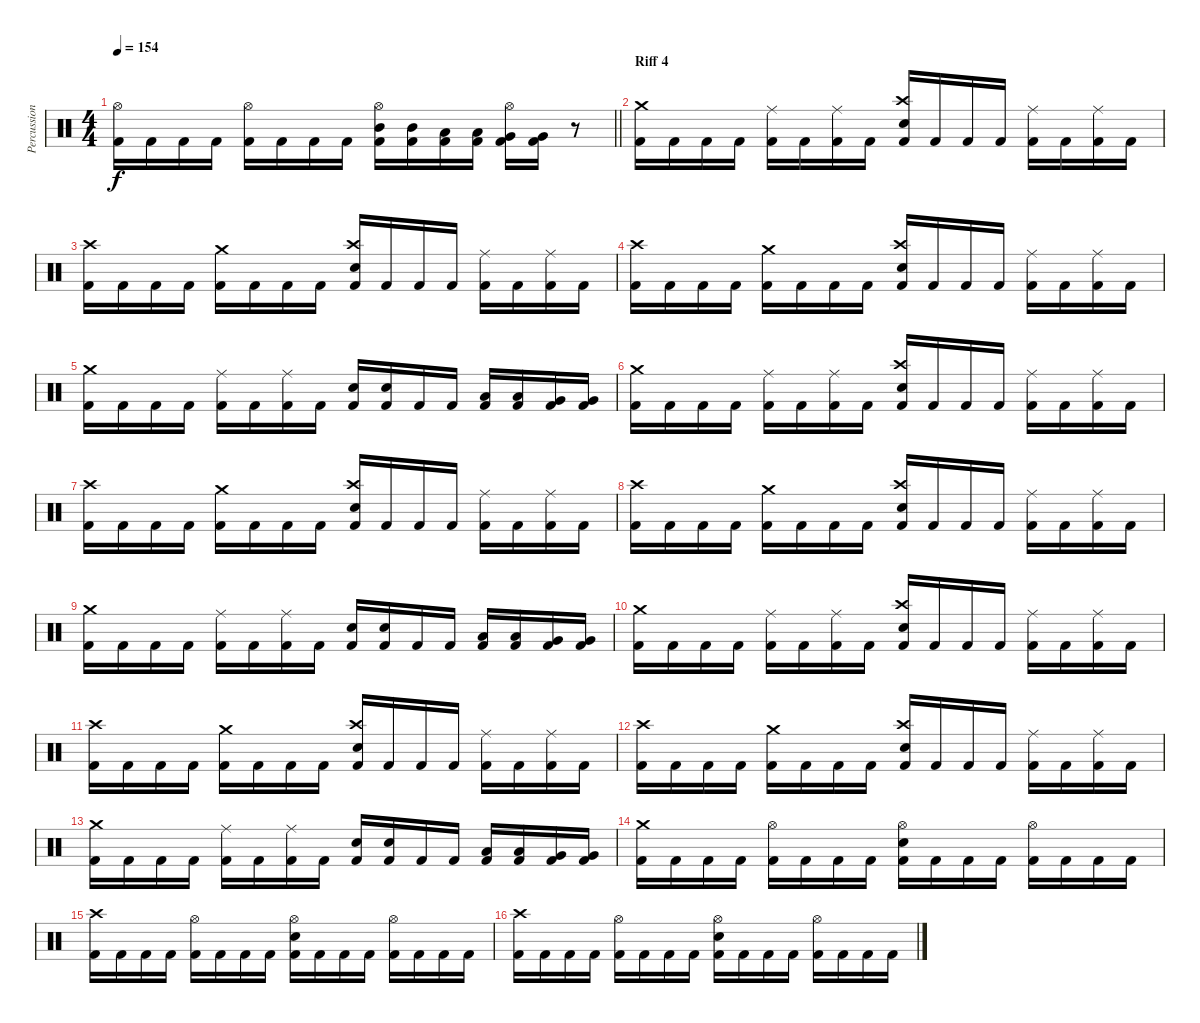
\track ("Percussion" "Percussion") {instrument percussion}
\staff {score}
\articulation defaults
\ts (4 4)
\tempo 154
\clef neutral
\barLineRight lightlight
\ks c
("Hi-Hat (open)" "Kick (hit) 2").16{dy f} "Kick (hit) 2".16 "Kick (hit) 2".16 "Kick (hit) 2".16 ("Hi-Hat (open)" "Kick (hit) 2").16 "Kick (hit) 2".16 "Kick (hit) 2".16 "Kick (hit) 2".16 ("Hi-Hat (open)" "Mid Tom (hit)" "Kick (hit) 2").16 ("Mid Tom (hit)" "Kick (hit) 2").16 ("Low Tom (hit)" "Kick (hit) 2").16 ("Low Tom (hit)" "Kick (hit) 2").16 ("Hi-Hat (open)" "Very Low Tom (hit)" "Kick (hit) 2").16 ("Very Low Tom (hit)" "Kick (hit) 2").16 r.8 |
\section ("" "Riff 4")
("Crash medium (hit)" "Kick (hit) 2").16 "Kick (hit) 2".16 "Kick (hit) 2".16 "Kick (hit) 2".16 ("Ride (middle)" "Kick (hit) 2").16 "Kick (hit) 2".16 ("Ride (middle)" "Kick (hit) 2").16 "Kick (hit) 2".16 ("Crash high (hit)" "Electric Snare (hit)" "Kick (hit) 2").16 "Kick (hit) 2".16 "Kick (hit) 2".16 "Kick (hit) 2".16 ("Ride (middle)" "Kick (hit) 2").16 "Kick (hit) 2".16 ("Ride (middle)" "Kick (hit) 2").16 "Kick (hit) 2".16 |
("Crash high (hit)" "Kick (hit) 2").16 "Kick (hit) 2".16 "Kick (hit) 2".16 "Kick (hit) 2".16 ("Crash medium (hit)" "Kick (hit) 2").16 "Kick (hit) 2".16 "Kick (hit) 2".16 "Kick (hit) 2".16 ("Crash high (hit)" "Electric Snare (hit)" "Kick (hit) 2").16 "Kick (hit) 2".16 "Kick (hit) 2".16 "Kick (hit) 2".16 ("Ride (middle)" "Kick (hit) 2").16 "Kick (hit) 2".16 ("Ride (middle)" "Kick (hit) 2").16 "Kick (hit) 2".16 |
("Crash high (hit)" "Kick (hit) 2").16 "Kick (hit) 2".16 "Kick (hit) 2".16 "Kick (hit) 2".16 ("Crash medium (hit)" "Kick (hit) 2").16 "Kick (hit) 2".16 "Kick (hit) 2".16 "Kick (hit) 2".16 ("Crash high (hit)" "Electric Snare (hit)" "Kick (hit) 2").16 "Kick (hit) 2".16 "Kick (hit) 2".16 "Kick (hit) 2".16 ("Ride (middle)" "Kick (hit) 2").16 "Kick (hit) 2".16 ("Ride (middle)" "Kick (hit) 2").16 "Kick (hit) 2".16 |
("Crash medium (hit)" "Kick (hit) 2").16 "Kick (hit) 2".16 "Kick (hit) 2".16 "Kick (hit) 2".16 ("Ride (middle)" "Kick (hit) 2").16 "Kick (hit) 2".16 ("Ride (middle)" "Kick (hit) 2").16 "Kick (hit) 2".16 ("Electric Snare (hit)" "Kick (hit) 2").16 ("Electric Snare (hit)" "Kick (hit) 2").16 "Kick (hit) 2".16 "Kick (hit) 2".16 ("Low Tom (hit)" "Kick (hit) 2").16 ("Low Tom (hit)" "Kick (hit) 2").16 ("Very Low Tom (hit)" "Kick (hit) 2").16 ("Very Low Tom (hit)" "Kick (hit) 2").16 |
("Crash medium (hit)" "Kick (hit) 2").16 "Kick (hit) 2".16 "Kick (hit) 2".16 "Kick (hit) 2".16 ("Ride (middle)" "Kick (hit) 2").16 "Kick (hit) 2".16 ("Ride (middle)" "Kick (hit) 2").16 "Kick (hit) 2".16 ("Crash high (hit)" "Electric Snare (hit)" "Kick (hit) 2").16 "Kick (hit) 2".16 "Kick (hit) 2".16 "Kick (hit) 2".16 ("Ride (middle)" "Kick (hit) 2").16 "Kick (hit) 2".16 ("Ride (middle)" "Kick (hit) 2").16 "Kick (hit) 2".16 |
("Crash high (hit)" "Kick (hit) 2").16 "Kick (hit) 2".16 "Kick (hit) 2".16 "Kick (hit) 2".16 ("Crash medium (hit)" "Kick (hit) 2").16 "Kick (hit) 2".16 "Kick (hit) 2".16 "Kick (hit) 2".16 ("Crash high (hit)" "Electric Snare (hit)" "Kick (hit) 2").16 "Kick (hit) 2".16 "Kick (hit) 2".16 "Kick (hit) 2".16 ("Ride (middle)" "Kick (hit) 2").16 "Kick (hit) 2".16 ("Ride (middle)" "Kick (hit) 2").16 "Kick (hit) 2".16 |
("Crash high (hit)" "Kick (hit) 2").16 "Kick (hit) 2".16 "Kick (hit) 2".16 "Kick (hit) 2".16 ("Crash medium (hit)" "Kick (hit) 2").16 "Kick (hit) 2".16 "Kick (hit) 2".16 "Kick (hit) 2".16 ("Crash high (hit)" "Electric Snare (hit)" "Kick (hit) 2").16 "Kick (hit) 2".16 "Kick (hit) 2".16 "Kick (hit) 2".16 ("Ride (middle)" "Kick (hit) 2").16 "Kick (hit) 2".16 ("Ride (middle)" "Kick (hit) 2").16 "Kick (hit) 2".16 |
("Crash medium (hit)" "Kick (hit) 2").16 "Kick (hit) 2".16 "Kick (hit) 2".16 "Kick (hit) 2".16 ("Ride (middle)" "Kick (hit) 2").16 "Kick (hit) 2".16 ("Ride (middle)" "Kick (hit) 2").16 "Kick (hit) 2".16 ("Electric Snare (hit)" "Kick (hit) 2").16 ("Electric Snare (hit)" "Kick (hit) 2").16 "Kick (hit) 2".16 "Kick (hit) 2".16 ("Low Tom (hit)" "Kick (hit) 2").16 ("Low Tom (hit)" "Kick (hit) 2").16 ("Very Low Tom (hit)" "Kick (hit) 2").16 ("Very Low Tom (hit)" "Kick (hit) 2").16 |
("Crash medium (hit)" "Kick (hit) 2").16 "Kick (hit) 2".16 "Kick (hit) 2".16 "Kick (hit) 2".16 ("Ride (middle)" "Kick (hit) 2").16 "Kick (hit) 2".16 ("Ride (middle)" "Kick (hit) 2").16 "Kick (hit) 2".16 ("Crash high (hit)" "Electric Snare (hit)" "Kick (hit) 2").16 "Kick (hit) 2".16 "Kick (hit) 2".16 "Kick (hit) 2".16 ("Ride (middle)" "Kick (hit) 2").16 "Kick (hit) 2".16 ("Ride (middle)" "Kick (hit) 2").16 "Kick (hit) 2".16 |
("Crash high (hit)" "Kick (hit) 2").16 "Kick (hit) 2".16 "Kick (hit) 2".16 "Kick (hit) 2".16 ("Crash medium (hit)" "Kick (hit) 2").16 "Kick (hit) 2".16 "Kick (hit) 2".16 "Kick (hit) 2".16 ("Crash high (hit)" "Electric Snare (hit)" "Kick (hit) 2").16 "Kick (hit) 2".16 "Kick (hit) 2".16 "Kick (hit) 2".16 ("Ride (middle)" "Kick (hit) 2").16 "Kick (hit) 2".16 ("Ride (middle)" "Kick (hit) 2").16 "Kick (hit) 2".16 |
("Crash high (hit)" "Kick (hit) 2").16 "Kick (hit) 2".16 "Kick (hit) 2".16 "Kick (hit) 2".16 ("Crash medium (hit)" "Kick (hit) 2").16 "Kick (hit) 2".16 "Kick (hit) 2".16 "Kick (hit) 2".16 ("Crash high (hit)" "Electric Snare (hit)" "Kick (hit) 2").16 "Kick (hit) 2".16 "Kick (hit) 2".16 "Kick (hit) 2".16 ("Ride (middle)" "Kick (hit) 2").16 "Kick (hit) 2".16 ("Ride (middle)" "Kick (hit) 2").16 "Kick (hit) 2".16 |
("Crash medium (hit)" "Kick (hit) 2").16 "Kick (hit) 2".16 "Kick (hit) 2".16 "Kick (hit) 2".16 ("Ride (middle)" "Kick (hit) 2").16 "Kick (hit) 2".16 ("Ride (middle)" "Kick (hit) 2").16 "Kick (hit) 2".16 ("Electric Snare (hit)" "Kick (hit) 2").16 ("Electric Snare (hit)" "Kick (hit) 2").16 "Kick (hit) 2".16 "Kick (hit) 2".16 ("Low Tom (hit)" "Kick (hit) 2").16 ("Low Tom (hit)" "Kick (hit) 2").16 ("Very Low Tom (hit)" "Kick (hit) 2").16 ("Very Low Tom (hit)" "Kick (hit) 2").16 |
("Crash medium (hit)" "Kick (hit) 2").16 "Kick (hit) 2".16 "Kick (hit) 2".16 "Kick (hit) 2".16 ("Hi-Hat (open)" "Kick (hit) 2").16 "Kick (hit) 2".16 "Kick (hit) 2".16 "Kick (hit) 2".16 ("Hi-Hat (open)" "Electric Snare (hit)" "Kick (hit) 2").16 "Kick (hit) 2".16 "Kick (hit) 2".16 "Kick (hit) 2".16 ("Hi-Hat (open)" "Kick (hit) 2").16 "Kick (hit) 2".16 "Kick (hit) 2".16 "Kick (hit) 2".16 |
("Crash high (hit)" "Kick (hit) 2").16 "Kick (hit) 2".16 "Kick (hit) 2".16 "Kick (hit) 2".16 ("Hi-Hat (open)" "Kick (hit) 2").16 "Kick (hit) 2".16 "Kick (hit) 2".16 "Kick (hit) 2".16 ("Hi-Hat (open)" "Electric Snare (hit)" "Kick (hit) 2").16 "Kick (hit) 2".16 "Kick (hit) 2".16 "Kick (hit) 2".16 ("Hi-Hat (open)" "Kick (hit) 2").16 "Kick (hit) 2".16 "Kick (hit) 2".16 "Kick (hit) 2".16 |
("Crash high (hit)" "Kick (hit) 2").16 "Kick (hit) 2".16 "Kick (hit) 2".16 "Kick (hit) 2".16 ("Hi-Hat (open)" "Kick (hit) 2").16 "Kick (hit) 2".16 "Kick (hit) 2".16 "Kick (hit) 2".16 ("Hi-Hat (open)" "Electric Snare (hit)" "Kick (hit) 2").16 "Kick (hit) 2".16 "Kick (hit) 2".16 "Kick (hit) 2".16 ("Hi-Hat (open)" "Kick (hit) 2").16 "Kick (hit) 2".16 "Kick (hit) 2".16 "Kick (hit) 2".16
